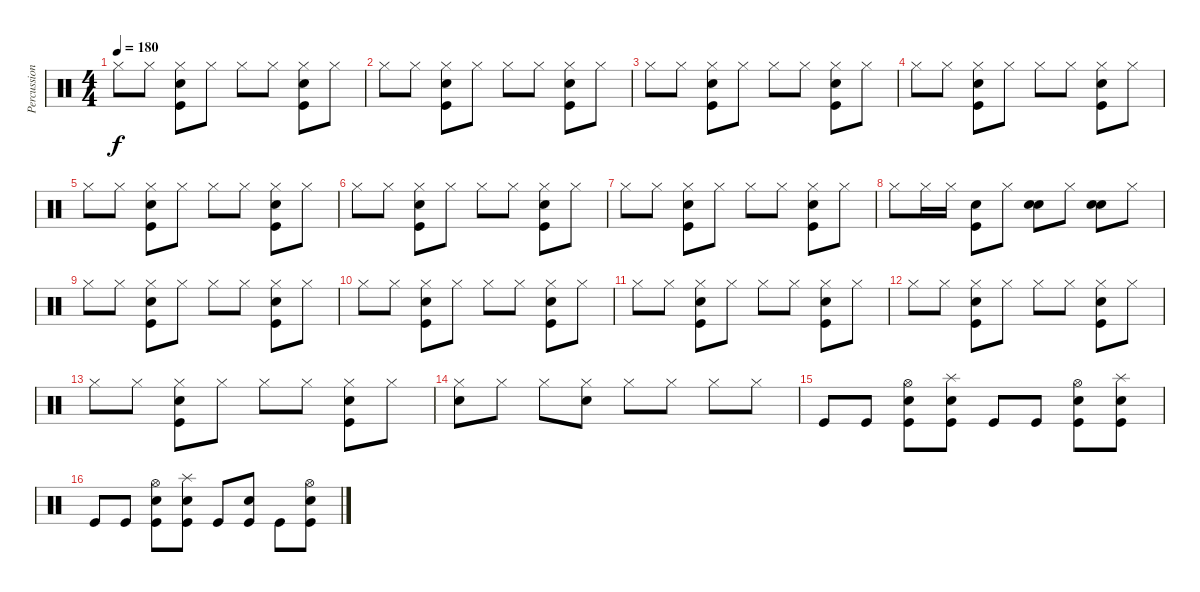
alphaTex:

\track ("Percussions" "Percussion") {instrument percussion}
\staff {score}
\articulation defaults
\ts (4 4)
\tempo 180
\clef neutral
\ks c "Hi-Hat (closed)".8{dy f} "Hi-Hat (closed)".8
("Hi-Hat (closed)" "Electric Snare (hit)" "Kick (hit)").8 "Hi-Hat (closed)".8 "Hi-Hat (closed)".8 "Hi-Hat (closed)".8 ("Hi-Hat (closed)" "Electric Snare (hit)" "Kick (hit)").8 "Hi-Hat (closed)".8 |
"Hi-Hat (closed)".8 "Hi-Hat (closed)".8 ("Hi-Hat (closed)" "Electric Snare (hit)" "Kick (hit)").8 "Hi-Hat (closed)".8 "Hi-Hat (closed)".8 "Hi-Hat (closed)".8 ("Hi-Hat (closed)" "Electric Snare (hit)" "Kick (hit)").8 "Hi-Hat (closed)".8 |
"Hi-Hat (closed)".8 "Hi-Hat (closed)".8 ("Hi-Hat (closed)" "Electric Snare (hit)" "Kick (hit)").8 "Hi-Hat (closed)".8 "Hi-Hat (closed)".8 "Hi-Hat (closed)".8 ("Hi-Hat (closed)" "Electric Snare (hit)" "Kick (hit)").8 "Hi-Hat (closed)".8 |
"Hi-Hat (closed)".8 "Hi-Hat (closed)".8 ("Hi-Hat (closed)" "Electric Snare (hit)" "Kick (hit)").8 "Hi-Hat (closed)".8 "Hi-Hat (closed)".8 "Hi-Hat (closed)".8 ("Hi-Hat (closed)" "Electric Snare (hit)" "Kick (hit)").8 "Hi-Hat (closed)".8 |
"Hi-Hat (closed)".8 "Hi-Hat (closed)".8 ("Hi-Hat (closed)" "Electric Snare (hit)" "Kick (hit)").8 "Hi-Hat (closed)".8 "Hi-Hat (closed)".8 "Hi-Hat (closed)".8 ("Hi-Hat (closed)" "Electric Snare (hit)" "Kick (hit)").8 "Hi-Hat (closed)".8 |
"Hi-Hat (closed)".8 "Hi-Hat (closed)".8 ("Hi-Hat (closed)" "Electric Snare (hit)" "Kick (hit)").8 "Hi-Hat (closed)".8 "Hi-Hat (closed)".8 "Hi-Hat (closed)".8 ("Hi-Hat (closed)" "Electric Snare (hit)" "Kick (hit)").8 "Hi-Hat (closed)".8 |
"Hi-Hat (closed)".8 "Hi-Hat (closed)".8 ("Hi-Hat (closed)" "Electric Snare (hit)" "Kick (hit)").8 "Hi-Hat (closed)".8 "Hi-Hat (closed)".8 "Hi-Hat (closed)".8 ("Hi-Hat (closed)" "Electric Snare (hit)" "Kick (hit)").8 "Hi-Hat (closed)".8 |
"Hi-Hat (closed)".8 "Hi-Hat (closed)".16 "Hi-Hat (closed)".16 ("Electric Snare (hit)" "Kick (hit)").8 "Hi-Hat (closed)".8 ("Electric Snare (hit)" "Snare (hit) 2").8 "Hi-Hat (closed)".8 ("Snare (hit) 2" "Electric Snare (hit)").8 "Hi-Hat (closed)".8 |
"Hi-Hat (closed)".8 "Hi-Hat (closed)".8 ("Hi-Hat (closed)" "Electric Snare (hit)" "Kick (hit)").8 "Hi-Hat (closed)".8 "Hi-Hat (closed)".8 "Hi-Hat (closed)".8 ("Hi-Hat (closed)" "Electric Snare (hit)" "Kick (hit)").8 "Hi-Hat (closed)".8 |
"Hi-Hat (closed)".8 "Hi-Hat (closed)".8 ("Hi-Hat (closed)" "Electric Snare (hit)" "Kick (hit)").8 "Hi-Hat (closed)".8 "Hi-Hat (closed)".8 "Hi-Hat (closed)".8 ("Hi-Hat (closed)" "Electric Snare (hit)" "Kick (hit)").8 "Hi-Hat (closed)".8 |
"Hi-Hat (closed)".8 "Hi-Hat (closed)".8 ("Hi-Hat (closed)" "Electric Snare (hit)" "Kick (hit)").8 "Hi-Hat (closed)".8 "Hi-Hat (closed)".8 "Hi-Hat (closed)".8 ("Hi-Hat (closed)" "Electric Snare (hit)" "Kick (hit)").8 "Hi-Hat (closed)".8 |
"Hi-Hat (closed)".8 "Hi-Hat (closed)".8 ("Hi-Hat (closed)" "Electric Snare (hit)" "Kick (hit)").8 "Hi-Hat (closed)".8 "Hi-Hat (closed)".8 "Hi-Hat (closed)".8 ("Hi-Hat (closed)" "Electric Snare (hit)" "Kick (hit)").8 "Hi-Hat (closed)".8 |
"Hi-Hat (closed)".8 "Hi-Hat (closed)".8 ("Hi-Hat (closed)" "Electric Snare (hit)" "Kick (hit)").8 "Hi-Hat (closed)".8 "Hi-Hat (closed)".8 "Hi-Hat (closed)".8 ("Hi-Hat (closed)" "Electric Snare (hit)" "Kick (hit)").8 "Hi-Hat (closed)".8 |
("Hi-Hat (closed)" "Electric Snare (hit)").8 "Hi-Hat (closed)".8 "Hi-Hat (closed)".8 ("Hi-Hat (closed)" "Electric Snare (hit)").8 "Hi-Hat (closed)".8 "Hi-Hat (closed)".8 "Hi-Hat (closed)".8 "Hi-Hat (closed)".8 |
"Kick (hit)".8 "Kick (hit)".8 ("Hi-Hat (open)" "Electric Snare (hit)" "Kick (hit)").8 ("Splash (hit)" "Electric Snare (hit)" "Kick (hit)").8 "Kick (hit)".8 "Kick (hit)".8 ("Hi-Hat (open)" "Electric Snare (hit)" "Kick (hit)").8 ("Splash (hit)" "Electric Snare (hit)" "Kick (hit)").8 |
"Kick (hit)".8 "Kick (hit)".8 ("Hi-Hat (open)" "Electric Snare (hit)" "Kick (hit)").8 ("Splash (hit)" "Electric Snare (hit)" "Kick (hit)").8 "Kick (hit)".8 ("Electric Snare (hit)" "Kick (hit)").8 "Kick (hit)".8 ("Hi-Hat (open)" "Electric Snare (hit)" "Kick (hit)").8
